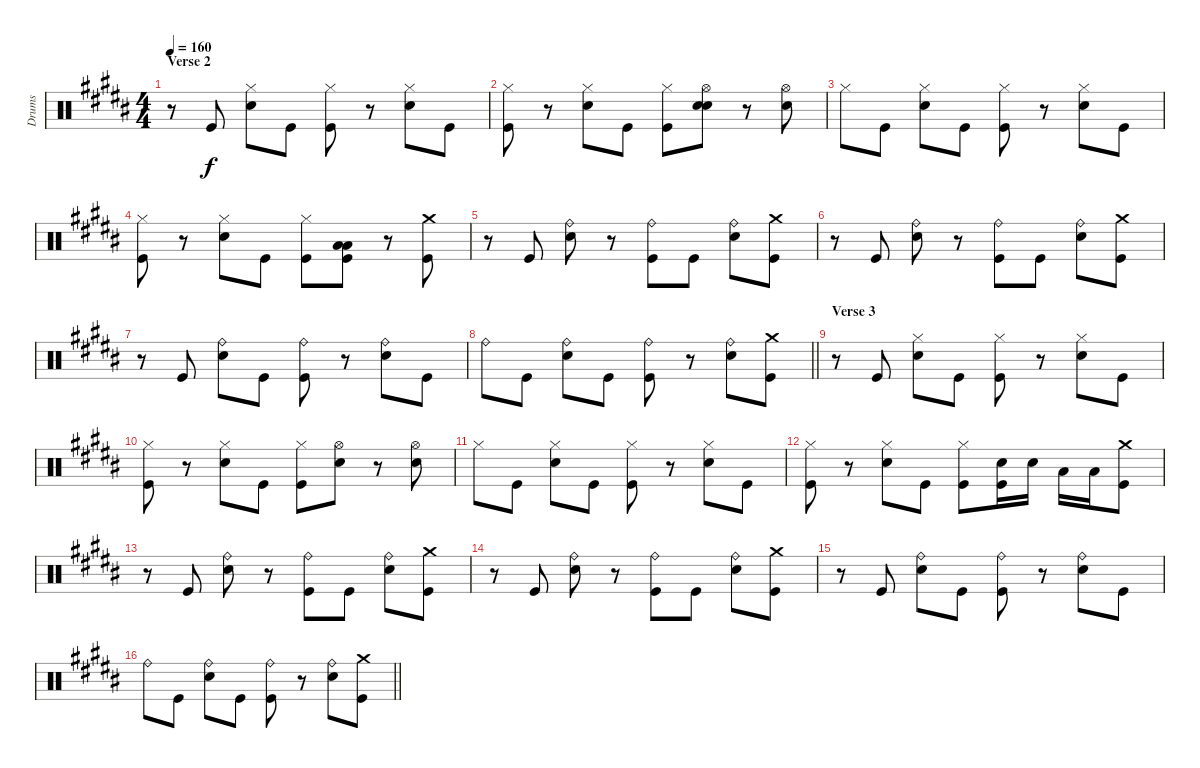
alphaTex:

\track ("Drums" "Drums") {instrument percussion}
\staff {score}
\articulation defaults
\ts (4 4)
\section ("" "Verse 2")
\tempo 160
\clef neutral
\ks b
r.8{dy f} "Kick (hit)".8 ("Hi-Hat (closed)" "Snare (hit) 2").8 "Kick (hit)".8 ("Hi-Hat (closed)" "Kick (hit)").8 r.8 ("Hi-Hat (closed)" "Snare (hit) 2").8 "Kick (hit)".8 |
("Hi-Hat (closed)" "Kick (hit)").8 r.8 ("Hi-Hat (closed)" "Snare (hit) 2").8 "Kick (hit)".8 ("Hi-Hat (closed)" "Kick (hit)").8 ("Hi-Hat (open)" "Snare (hit) 2" "Electric Snare (hit)").8 r.8 ("Hi-Hat (open)" "Snare (hit) 2").8 |
"Hi-Hat (closed)".8 "Kick (hit)".8 ("Hi-Hat (closed)" "Snare (hit) 2").8 "Kick (hit)".8 ("Hi-Hat (closed)" "Kick (hit)").8 r.8 ("Hi-Hat (closed)" "Snare (hit) 2").8 "Kick (hit)".8 |
("Hi-Hat (closed)" "Kick (hit)").8 r.8 ("Hi-Hat (closed)" "Snare (hit) 2").8 "Kick (hit)".8 ("Hi-Hat (closed)" "Kick (hit)").8 ("Low Tom (hit)" "Low Floor Tom (hit)" "Kick (hit)").8 r.8 ("Crash medium (hit)" "Kick (hit)").8 |
r.8 "Kick (hit)".8 ("Ride (bell)" "Snare (hit) 2").8 r.8 ("Ride (bell)" "Kick (hit)").8 "Kick (hit)".8 ("Ride (bell)" "Snare (hit) 2").8 ("Crash medium (hit)" "Kick (hit)").8 |
r.8 "Kick (hit)".8 ("Ride (bell)" "Snare (hit) 2").8 r.8 ("Ride (bell)" "Kick (hit)").8 "Kick (hit)".8 ("Ride (bell)" "Snare (hit) 2").8 ("Crash medium (hit)" "Kick (hit)").8 |
r.8 "Kick (hit)".8 ("Ride (bell)" "Snare (hit) 2").8 "Kick (hit)".8 ("Ride (bell)" "Kick (hit)").8 r.8 ("Ride (bell)" "Snare (hit) 2").8 "Kick (hit)".8 |
\barLineRight lightlight "Ride (bell)".8 "Kick (hit)".8
("Ride (bell)" "Snare (hit) 2").8 "Kick (hit)".8 ("Ride (bell)" "Kick (hit)").8 r.8 ("Ride (bell)" "Snare (hit) 2").8 ("Crash medium (hit)" "Kick (hit)").8 |
\section ("" "Verse 3")
r.8 "Kick (hit)".8 ("Hi-Hat (closed)" "Snare (hit) 2").8 "Kick (hit)".8 ("Hi-Hat (closed)" "Kick (hit)").8 r.8 ("Hi-Hat (closed)" "Snare (hit) 2").8 "Kick (hit)".8 |
("Hi-Hat (closed)" "Kick (hit)").8 r.8 ("Hi-Hat (closed)" "Snare (hit) 2").8 "Kick (hit)".8 ("Hi-Hat (closed)" "Kick (hit)").8 ("Hi-Hat (open)" "Snare (hit) 2").8 r.8 ("Hi-Hat (open)" "Snare (hit) 2").8 |
"Hi-Hat (closed)".8 "Kick (hit)".8 ("Hi-Hat (closed)" "Snare (hit) 2").8 "Kick (hit)".8 ("Hi-Hat (closed)" "Kick (hit)").8 r.8 ("Hi-Hat (closed)" "Snare (hit) 2").8 "Kick (hit)".8 |
("Hi-Hat (closed)" "Kick (hit)").8 r.8 ("Hi-Hat (closed)" "Snare (hit) 2").8 "Kick (hit)".8 ("Hi-Hat (closed)" "Kick (hit)").8 ("Snare (hit) 2" "Kick (hit)").16 "Snare (hit) 2".16 "Low Tom (hit)".16 "Low Floor Tom (hit)".16 ("Crash medium (hit)" "Kick (hit)").8 |
r.8 "Kick (hit)".8 ("Ride (bell)" "Snare (hit) 2").8 r.8 ("Ride (bell)" "Kick (hit)").8 "Kick (hit)".8 ("Ride (bell)" "Snare (hit) 2").8 ("Crash medium (hit)" "Kick (hit)").8 |
r.8 "Kick (hit)".8 ("Ride (bell)" "Snare (hit) 2").8 r.8 ("Ride (bell)" "Kick (hit)").8 "Kick (hit)".8 ("Ride (bell)" "Snare (hit) 2").8 ("Crash medium (hit)" "Kick (hit)").8 |
r.8 "Kick (hit)".8 ("Ride (bell)" "Snare (hit) 2").8 "Kick (hit)".8 ("Ride (bell)" "Kick (hit)").8 r.8 ("Ride (bell)" "Snare (hit) 2").8 "Kick (hit)".8 |
\barLineRight lightlight "Ride (bell)".8 "Kick (hit)".8
("Ride (bell)" "Snare (hit) 2").8 "Kick (hit)".8 ("Ride (bell)" "Kick (hit)").8 r.8 ("Ride (bell)" "Snare (hit) 2").8 ("Crash medium (hit)" "Kick (hit)").8
